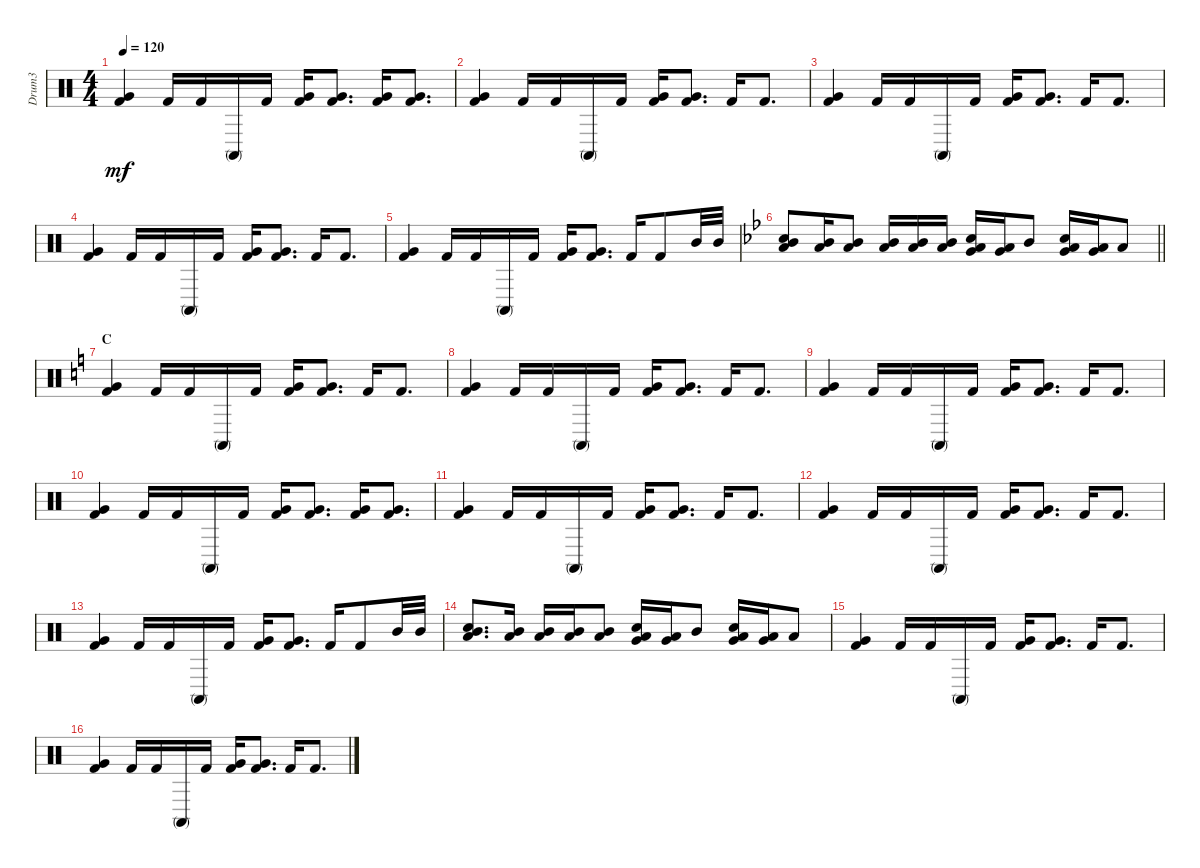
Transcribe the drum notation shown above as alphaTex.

\track ("Drum3" "Drum3") {instrument percussion}
\staff {score}
\articulation defaults
\ts (4 4)
\tempo 120
\clef neutral
\ks c
("Kick (hit) 2" "Very Low Tom (hit)").4{dy mf} "Kick (hit) 2".16 "Kick (hit) 2".16 "Conga high (mute)".16 "Kick (hit) 2".16 ("Kick (hit) 2" "Very Low Tom (hit)").16 ("Kick (hit) 2" "Very Low Tom (hit)").8{d} ("Kick (hit) 2" "Very Low Tom (hit)").16 ("Kick (hit) 2" "Very Low Tom (hit)").8{d} |
("Kick (hit) 2" "Very Low Tom (hit)").4 "Kick (hit) 2".16 "Kick (hit) 2".16 "Conga high (mute)".16 "Kick (hit) 2".16 ("Kick (hit) 2" "Very Low Tom (hit)").16 ("Kick (hit) 2" "Very Low Tom (hit)").8{d} "Kick (hit) 2".16 "Kick (hit) 2".8{d} |
("Kick (hit) 2" "Very Low Tom (hit)").4 "Kick (hit) 2".16 "Kick (hit) 2".16 "Conga high (mute)".16 "Kick (hit) 2".16 ("Kick (hit) 2" "Very Low Tom (hit)").16 ("Kick (hit) 2" "Very Low Tom (hit)").8{d} "Kick (hit) 2".16 "Kick (hit) 2".8{d} |
("Kick (hit) 2" "Very Low Tom (hit)").4 "Kick (hit) 2".16 "Kick (hit) 2".16 "Conga high (mute)".16 "Kick (hit) 2".16 ("Kick (hit) 2" "Very Low Tom (hit)").16 ("Kick (hit) 2" "Very Low Tom (hit)").8{d} "Kick (hit) 2".16 "Kick (hit) 2".8{d} |
("Kick (hit) 2" "Very Low Tom (hit)").4 "Kick (hit) 2".16 "Kick (hit) 2".16 "Conga high (mute)".16 "Kick (hit) 2".16 ("Kick (hit) 2" "Very Low Tom (hit)").16 ("Kick (hit) 2" "Very Low Tom (hit)").8{d} "Kick (hit) 2".16 "Kick (hit) 2".8 "Mid Tom (hit)".32 "Mid Tom (hit)".32 |
\barLineRight lightlight
\ks bb
("Mid Tom (hit)" "Snare (hit) 2" "Low Tom (hit)").8 ("Mid Tom (hit)" "Low Tom (hit)").16 ("Low Tom (hit)" "Mid Tom (hit)").8 ("Mid Tom (hit)" "Low Tom (hit)").16 ("Mid Tom (hit)" "Low Tom (hit)").16 ("Mid Tom (hit)" "Low Tom (hit)").16 ("Low Tom (hit)" "Very Low Tom (hit)" "Snare (hit) 2").16 ("Low Tom (hit)" "Very Low Tom (hit)").16 "Mid Tom (hit)".8 ("Very Low Tom (hit)" "Low Floor Tom (hit)" "Snare (hit) 2").16 ("Very Low Tom (hit)" "Low Floor Tom (hit)").16 "Low Tom (hit)".8 |
\section ("" "C")
\ks c
("Kick (hit) 2" "Very Low Tom (hit)").4 "Kick (hit) 2".16 "Kick (hit) 2".16 "Conga high (mute)".16 "Kick (hit) 2".16 ("Kick (hit) 2" "Very Low Tom (hit)").16 ("Kick (hit) 2" "Very Low Tom (hit)").8{d} "Kick (hit) 2".16 "Kick (hit) 2".8{d} |
("Kick (hit) 2" "Very Low Tom (hit)").4 "Kick (hit) 2".16 "Kick (hit) 2".16 "Conga high (mute)".16 "Kick (hit) 2".16 ("Kick (hit) 2" "Very Low Tom (hit)").16 ("Kick (hit) 2" "Very Low Tom (hit)").8{d} "Kick (hit) 2".16 "Kick (hit) 2".8{d} |
("Kick (hit) 2" "Very Low Tom (hit)").4 "Kick (hit) 2".16 "Kick (hit) 2".16 "Conga high (mute)".16 "Kick (hit) 2".16 ("Kick (hit) 2" "Very Low Tom (hit)").16 ("Kick (hit) 2" "Very Low Tom (hit)").8{d} "Kick (hit) 2".16 "Kick (hit) 2".8{d} |
("Kick (hit) 2" "Very Low Tom (hit)").4 "Kick (hit) 2".16 "Kick (hit) 2".16 "Conga high (mute)".16 "Kick (hit) 2".16 ("Kick (hit) 2" "Very Low Tom (hit)").16 ("Kick (hit) 2" "Very Low Tom (hit)").8{d} ("Kick (hit) 2" "Very Low Tom (hit)").16 ("Kick (hit) 2" "Very Low Tom (hit)").8{d} |
("Kick (hit) 2" "Very Low Tom (hit)").4 "Kick (hit) 2".16 "Kick (hit) 2".16 "Conga high (mute)".16 "Kick (hit) 2".16 ("Kick (hit) 2" "Very Low Tom (hit)").16 ("Kick (hit) 2" "Very Low Tom (hit)").8{d} "Kick (hit) 2".16 "Kick (hit) 2".8{d} |
("Kick (hit) 2" "Very Low Tom (hit)").4 "Kick (hit) 2".16 "Kick (hit) 2".16 "Conga high (mute)".16 "Kick (hit) 2".16 ("Kick (hit) 2" "Very Low Tom (hit)").16 ("Kick (hit) 2" "Very Low Tom (hit)").8{d} "Kick (hit) 2".16 "Kick (hit) 2".8{d} |
("Kick (hit) 2" "Very Low Tom (hit)").4 "Kick (hit) 2".16 "Kick (hit) 2".16 "Conga high (mute)".16 "Kick (hit) 2".16 ("Kick (hit) 2" "Very Low Tom (hit)").16 ("Kick (hit) 2" "Very Low Tom (hit)").8{d} "Kick (hit) 2".16 "Kick (hit) 2".8 "Mid Tom (hit)".32 "Mid Tom (hit)".32 |
("Mid Tom (hit)" "Snare (hit) 2" "Low Tom (hit)").8{d} ("Mid Tom (hit)" "Low Tom (hit)").16 ("Mid Tom (hit)" "Low Tom (hit)").16 ("Mid Tom (hit)" "Low Tom (hit)").16 ("Low Tom (hit)" "Mid Tom (hit)").8 ("Low Tom (hit)" "Very Low Tom (hit)" "Snare (hit) 2").16 ("Low Tom (hit)" "Very Low Tom (hit)").16 "Mid Tom (hit)".8 ("Very Low Tom (hit)" "Low Floor Tom (hit)" "Snare (hit) 2").16 ("Very Low Tom (hit)" "Low Floor Tom (hit)").16 "Low Tom (hit)".8 |
("Kick (hit) 2" "Very Low Tom (hit)").4 "Kick (hit) 2".16 "Kick (hit) 2".16 "Conga high (mute)".16 "Kick (hit) 2".16 ("Kick (hit) 2" "Very Low Tom (hit)").16 ("Kick (hit) 2" "Very Low Tom (hit)").8{d} "Kick (hit) 2".16 "Kick (hit) 2".8{d} |
("Kick (hit) 2" "Very Low Tom (hit)").4 "Kick (hit) 2".16 "Kick (hit) 2".16 "Conga high (mute)".16 "Kick (hit) 2".16 ("Kick (hit) 2" "Very Low Tom (hit)").16 ("Kick (hit) 2" "Very Low Tom (hit)").8{d} "Kick (hit) 2".16 "Kick (hit) 2".8{d}
